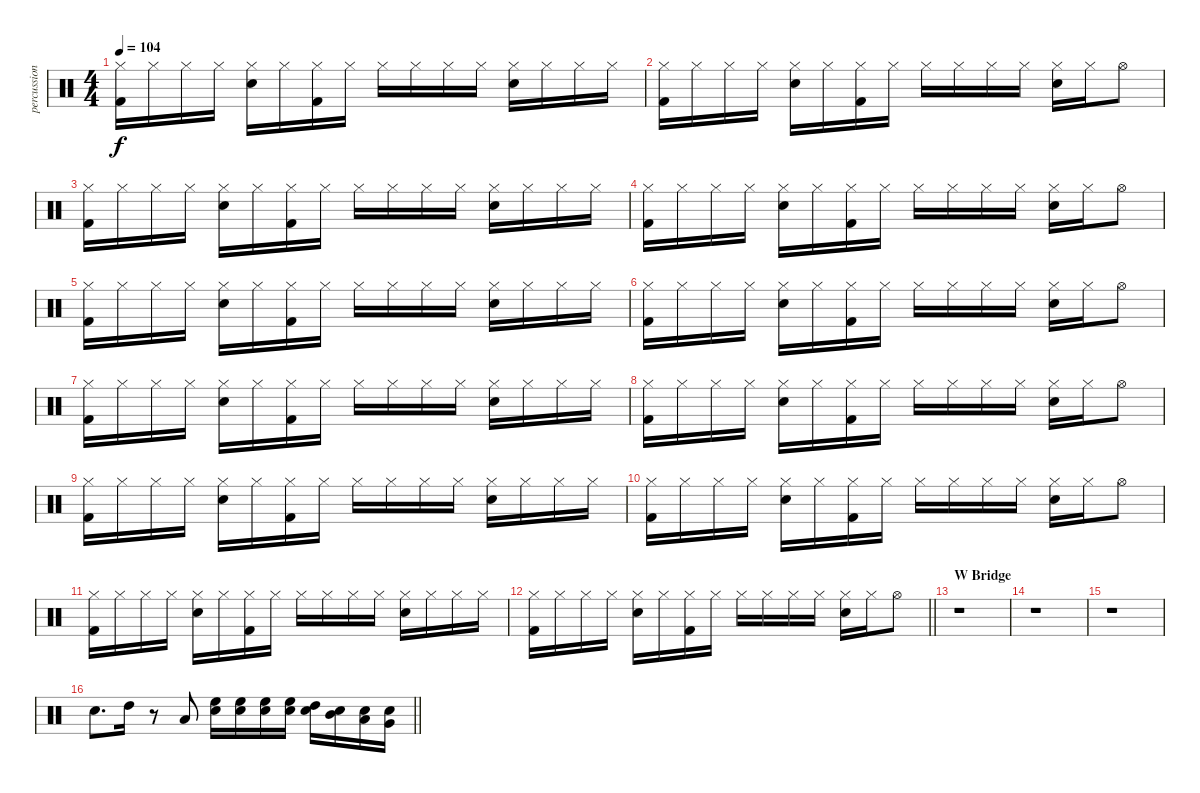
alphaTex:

\track ("percussion" "percussion") {instrument percussion}
\staff {score}
\articulation defaults
\ts (4 4)
\tempo 104
\clef neutral
\ks c
("Hi-Hat (closed)" "Kick (hit) 2").16{dy f} "Hi-Hat (closed)".16 "Hi-Hat (closed)".16 "Hi-Hat (closed)".16 ("Snare (hit) 2" "Hi-Hat (closed)").16 "Hi-Hat (closed)".16 ("Hi-Hat (closed)" "Kick (hit) 2").16 "Hi-Hat (closed)".16 "Hi-Hat (closed)".16 "Hi-Hat (closed)".16 "Hi-Hat (closed)".16 "Hi-Hat (closed)".16 ("Snare (hit) 2" "Hi-Hat (closed)").16 "Hi-Hat (closed)".16 "Hi-Hat (closed)".16 "Hi-Hat (closed)".16 |
("Hi-Hat (closed)" "Kick (hit) 2").16 "Hi-Hat (closed)".16 "Hi-Hat (closed)".16 "Hi-Hat (closed)".16 ("Snare (hit) 2" "Hi-Hat (closed)").16 "Hi-Hat (closed)".16 ("Hi-Hat (closed)" "Kick (hit) 2").16 "Hi-Hat (closed)".16 "Hi-Hat (closed)".16 "Hi-Hat (closed)".16 "Hi-Hat (closed)".16 "Hi-Hat (closed)".16 ("Snare (hit) 2" "Hi-Hat (closed)").16 "Hi-Hat (closed)".16 "Hi-Hat (open)".8 |
("Hi-Hat (closed)" "Kick (hit) 2").16 "Hi-Hat (closed)".16 "Hi-Hat (closed)".16 "Hi-Hat (closed)".16 ("Snare (hit) 2" "Hi-Hat (closed)").16 "Hi-Hat (closed)".16 ("Hi-Hat (closed)" "Kick (hit) 2").16 "Hi-Hat (closed)".16 "Hi-Hat (closed)".16 "Hi-Hat (closed)".16 "Hi-Hat (closed)".16 "Hi-Hat (closed)".16 ("Snare (hit) 2" "Hi-Hat (closed)").16 "Hi-Hat (closed)".16 "Hi-Hat (closed)".16 "Hi-Hat (closed)".16 |
("Hi-Hat (closed)" "Kick (hit) 2").16 "Hi-Hat (closed)".16 "Hi-Hat (closed)".16 "Hi-Hat (closed)".16 ("Snare (hit) 2" "Hi-Hat (closed)").16 "Hi-Hat (closed)".16 ("Hi-Hat (closed)" "Kick (hit) 2").16 "Hi-Hat (closed)".16 "Hi-Hat (closed)".16 "Hi-Hat (closed)".16 "Hi-Hat (closed)".16 "Hi-Hat (closed)".16 ("Snare (hit) 2" "Hi-Hat (closed)").16 "Hi-Hat (closed)".16 "Hi-Hat (open)".8 |
("Hi-Hat (closed)" "Kick (hit) 2").16 "Hi-Hat (closed)".16 "Hi-Hat (closed)".16 "Hi-Hat (closed)".16 ("Snare (hit) 2" "Hi-Hat (closed)").16 "Hi-Hat (closed)".16 ("Hi-Hat (closed)" "Kick (hit) 2").16 "Hi-Hat (closed)".16 "Hi-Hat (closed)".16 "Hi-Hat (closed)".16 "Hi-Hat (closed)".16 "Hi-Hat (closed)".16 ("Snare (hit) 2" "Hi-Hat (closed)").16 "Hi-Hat (closed)".16 "Hi-Hat (closed)".16 "Hi-Hat (closed)".16 |
("Hi-Hat (closed)" "Kick (hit) 2").16 "Hi-Hat (closed)".16 "Hi-Hat (closed)".16 "Hi-Hat (closed)".16 ("Snare (hit) 2" "Hi-Hat (closed)").16 "Hi-Hat (closed)".16 ("Hi-Hat (closed)" "Kick (hit) 2").16 "Hi-Hat (closed)".16 "Hi-Hat (closed)".16 "Hi-Hat (closed)".16 "Hi-Hat (closed)".16 "Hi-Hat (closed)".16 ("Snare (hit) 2" "Hi-Hat (closed)").16 "Hi-Hat (closed)".16 "Hi-Hat (open)".8 |
("Hi-Hat (closed)" "Kick (hit) 2").16 "Hi-Hat (closed)".16 "Hi-Hat (closed)".16 "Hi-Hat (closed)".16 ("Snare (hit) 2" "Hi-Hat (closed)").16 "Hi-Hat (closed)".16 ("Hi-Hat (closed)" "Kick (hit) 2").16 "Hi-Hat (closed)".16 "Hi-Hat (closed)".16 "Hi-Hat (closed)".16 "Hi-Hat (closed)".16 "Hi-Hat (closed)".16 ("Snare (hit) 2" "Hi-Hat (closed)").16 "Hi-Hat (closed)".16 "Hi-Hat (closed)".16 "Hi-Hat (closed)".16 |
("Hi-Hat (closed)" "Kick (hit) 2").16 "Hi-Hat (closed)".16 "Hi-Hat (closed)".16 "Hi-Hat (closed)".16 ("Snare (hit) 2" "Hi-Hat (closed)").16 "Hi-Hat (closed)".16 ("Hi-Hat (closed)" "Kick (hit) 2").16 "Hi-Hat (closed)".16 "Hi-Hat (closed)".16 "Hi-Hat (closed)".16 "Hi-Hat (closed)".16 "Hi-Hat (closed)".16 ("Snare (hit) 2" "Hi-Hat (closed)").16 "Hi-Hat (closed)".16 "Hi-Hat (open)".8 |
("Hi-Hat (closed)" "Kick (hit) 2").16 "Hi-Hat (closed)".16 "Hi-Hat (closed)".16 "Hi-Hat (closed)".16 ("Snare (hit) 2" "Hi-Hat (closed)").16 "Hi-Hat (closed)".16 ("Hi-Hat (closed)" "Kick (hit) 2").16 "Hi-Hat (closed)".16 "Hi-Hat (closed)".16 "Hi-Hat (closed)".16 "Hi-Hat (closed)".16 "Hi-Hat (closed)".16 ("Snare (hit) 2" "Hi-Hat (closed)").16 "Hi-Hat (closed)".16 "Hi-Hat (closed)".16 "Hi-Hat (closed)".16 |
("Hi-Hat (closed)" "Kick (hit) 2").16 "Hi-Hat (closed)".16 "Hi-Hat (closed)".16 "Hi-Hat (closed)".16 ("Snare (hit) 2" "Hi-Hat (closed)").16 "Hi-Hat (closed)".16 ("Hi-Hat (closed)" "Kick (hit) 2").16 "Hi-Hat (closed)".16 "Hi-Hat (closed)".16 "Hi-Hat (closed)".16 "Hi-Hat (closed)".16 "Hi-Hat (closed)".16 ("Snare (hit) 2" "Hi-Hat (closed)").16 "Hi-Hat (closed)".16 "Hi-Hat (open)".8 |
("Hi-Hat (closed)" "Kick (hit) 2").16 "Hi-Hat (closed)".16 "Hi-Hat (closed)".16 "Hi-Hat (closed)".16 ("Snare (hit) 2" "Hi-Hat (closed)").16 "Hi-Hat (closed)".16 ("Hi-Hat (closed)" "Kick (hit) 2").16 "Hi-Hat (closed)".16 "Hi-Hat (closed)".16 "Hi-Hat (closed)".16 "Hi-Hat (closed)".16 "Hi-Hat (closed)".16 ("Snare (hit) 2" "Hi-Hat (closed)").16 "Hi-Hat (closed)".16 "Hi-Hat (closed)".16 "Hi-Hat (closed)".16 |
\barLineRight lightlight
("Hi-Hat (closed)" "Kick (hit) 2").16 "Hi-Hat (closed)".16 "Hi-Hat (closed)".16 "Hi-Hat (closed)".16 ("Snare (hit) 2" "Hi-Hat (closed)").16 "Hi-Hat (closed)".16 ("Hi-Hat (closed)" "Kick (hit) 2").16 "Hi-Hat (closed)".16 "Hi-Hat (closed)".16 "Hi-Hat (closed)".16 "Hi-Hat (closed)".16 "Hi-Hat (closed)".16 ("Snare (hit) 2" "Hi-Hat (closed)").16 "Hi-Hat (closed)".16 "Hi-Hat (open)".8 |
\section ("" "W Bridge")
r.1 |
r.1 |
r.1 |
\barLineRight lightlight "Snare (hit) 2".8{d} "High Tom (hit)".16
r.8 "Low Tom (hit)".8 ("High Floor Tom (hit)" "Snare (hit) 2").16 ("High Floor Tom (hit)" "Snare (hit) 2").16 ("High Floor Tom (hit)" "Snare (hit) 2").16 ("High Floor Tom (hit)" "Snare (hit) 2").16 ("High Tom (hit)" "Snare (hit) 2").16 ("Mid Tom (hit)" "Snare (hit) 2").16 ("Low Tom (hit)" "Snare (hit) 2").16 ("Very Low Tom (hit)" "Snare (hit) 2").16
